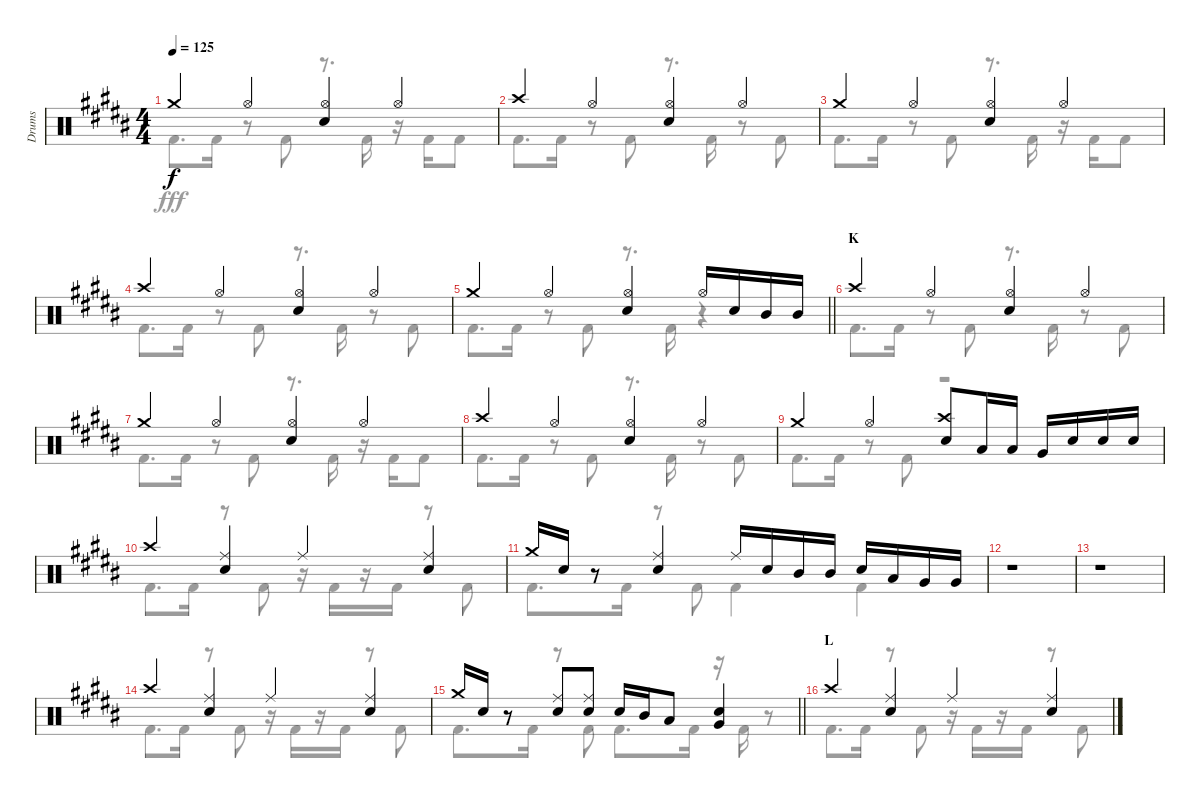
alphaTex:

\track ("Drums" "Drums") {instrument percussion}
\staff {score}
\articulation defaults
\voice
\ts (4 4)
\tempo 125
\clef neutral
\ks b "Crash medium (hit)".4{dy f} "Hi-Hat (open)".4
("Hi-Hat (open)" "Snare (hit) 2").4 "Hi-Hat (open)".4 |
"Crash high (hit)".4 "Hi-Hat (open)".4 ("Hi-Hat (open)" "Snare (hit) 2").4 "Hi-Hat (open)".4 |
"Crash medium (hit)".4 "Hi-Hat (open)".4 ("Hi-Hat (open)" "Snare (hit) 2").4 "Hi-Hat (open)".4 |
"Crash high (hit)".4 "Hi-Hat (open)".4 ("Hi-Hat (open)" "Snare (hit) 2").4 "Hi-Hat (open)".4 |
\barLineRight lightlight "Crash medium (hit)".4 "Hi-Hat (open)".4
("Hi-Hat (open)" "Snare (hit) 2").4 "Hi-Hat (open)".16 "Snare (hit) 2".16 "Mid Tom (hit)".16 "Mid Tom (hit)".16 |
\section ("" "K")
"Crash high (hit)".4 "Hi-Hat (open)".4 ("Hi-Hat (open)" "Snare (hit) 2").4 "Hi-Hat (open)".4 |
"Crash medium (hit)".4 "Hi-Hat (open)".4 ("Hi-Hat (open)" "Snare (hit) 2").4 "Hi-Hat (open)".4 |
"Crash high (hit)".4 "Hi-Hat (open)".4 ("Hi-Hat (open)" "Snare (hit) 2").4 "Hi-Hat (open)".4 |
"Crash medium (hit)".4 "Hi-Hat (open)".4 ("Crash high (hit)" "Snare (hit) 2").8 "Low Tom (hit)".16 "Low Tom (hit)".16 "Very Low Tom (hit)".16 "Snare (hit) 2".16 "Snare (hit) 2".16 "Snare (hit) 2".16 |
"Crash high (hit)".4 ("Ride (middle)" "Snare (hit) 2").4 "Ride (middle)".4 ("Ride (middle)" "Snare (hit) 2").4 |
"Crash medium (hit)".16 "Snare (hit) 2".16 r.8 ("Ride (middle)" "Snare (hit) 2").4 "Ride (middle)".16 "Snare (hit) 2".16 "Mid Tom (hit)".16 "Mid Tom (hit)".16 "Snare (hit) 2".16 "Low Tom (hit)".16 "Very Low Tom (hit)".16 "Very Low Tom (hit)".16 |
r.1 |
r.1 |
"Crash high (hit)".4 ("Ride (middle)" "Snare (hit) 2").4 "Ride (middle)".4 ("Ride (middle)" "Snare (hit) 2").4 |
\barLineRight lightlight "Crash medium (hit)".16 "Snare (hit) 2".16
r.8 ("Ride (middle)" "Snare (hit) 2").8 ("Ride (middle)" "Snare (hit) 2").8 "Snare (hit) 2".16 "Mid Tom (hit)".16 "Low Tom (hit)".8 ("Snare (hit) 2" "Very Low Tom (hit)").4 |
\section ("" "L")
"Crash high (hit)".4 ("Ride (middle)" "Snare (hit) 2").4 "Ride (middle)".4 ("Ride (middle)" "Snare (hit) 2").4
\voice
\clef neutral
\ottava regular
\simile none
\ks b "Kick (hit) 2".8{d dy fff} "Kick (hit) 2".16
r.8 "Kick (hit) 2".8 r.8{d} "Kick (hit) 2".16 r.16 "Kick (hit) 2".16 "Kick (hit) 2".8 |
"Kick (hit) 2".8{d} "Kick (hit) 2".16 r.8 "Kick (hit) 2".8 r.8{d} "Kick (hit) 2".16 r.8 "Kick (hit) 2".8 |
"Kick (hit) 2".8{d} "Kick (hit) 2".16 r.8 "Kick (hit) 2".8 r.8{d} "Kick (hit) 2".16 r.16 "Kick (hit) 2".16 "Kick (hit) 2".8 |
"Kick (hit) 2".8{d} "Kick (hit) 2".16 r.8 "Kick (hit) 2".8 r.8{d} "Kick (hit) 2".16 r.8 "Kick (hit) 2".8 |
\barLineRight lightlight "Kick (hit) 2".8{d} "Kick (hit) 2".16
r.8 "Kick (hit) 2".8 r.8{d} "Kick (hit) 2".16 r.4 |
"Kick (hit) 2".8{d} "Kick (hit) 2".16 r.8 "Kick (hit) 2".8 r.8{d} "Kick (hit) 2".16 r.8 "Kick (hit) 2".8 |
"Kick (hit) 2".8{d} "Kick (hit) 2".16 r.8 "Kick (hit) 2".8 r.8{d} "Kick (hit) 2".16 r.16 "Kick (hit) 2".16 "Kick (hit) 2".8 |
"Kick (hit) 2".8{d} "Kick (hit) 2".16 r.8 "Kick (hit) 2".8 r.8{d} "Kick (hit) 2".16 r.8 "Kick (hit) 2".8 |
"Kick (hit) 2".8{d} "Kick (hit) 2".16 r.8 "Kick (hit) 2".8 r.2 |
"Kick (hit) 2".8{d} "Kick (hit) 2".16 r.8 "Kick (hit) 2".8 r.16 "Kick (hit) 2".16 r.16 "Kick (hit) 2".16 r.8 "Kick (hit) 2".8 |
"Kick (hit) 2".8{d} "Kick (hit) 2".16 r.8 "Kick (hit) 2".8 "Kick (hit) 2".4 "Kick (hit) 2".4 |
r.1 |
r.1 |
"Kick (hit) 2".8{d} "Kick (hit) 2".16 r.8 "Kick (hit) 2".8 r.16 "Kick (hit) 2".16 r.16 "Kick (hit) 2".16 r.8 "Kick (hit) 2".8 |
\barLineRight lightlight "Kick (hit) 2".8{d} "Kick (hit) 2".16
r.8 "Kick (hit) 2".8 "Kick (hit) 2".8{d} "Kick (hit) 2".16 r.16 "Kick (hit) 2".16 r.8 |
"Kick (hit) 2".8{d} "Kick (hit) 2".16 r.8 "Kick (hit) 2".8 r.16 "Kick (hit) 2".16 r.16 "Kick (hit) 2".16 r.8 "Kick (hit) 2".8
